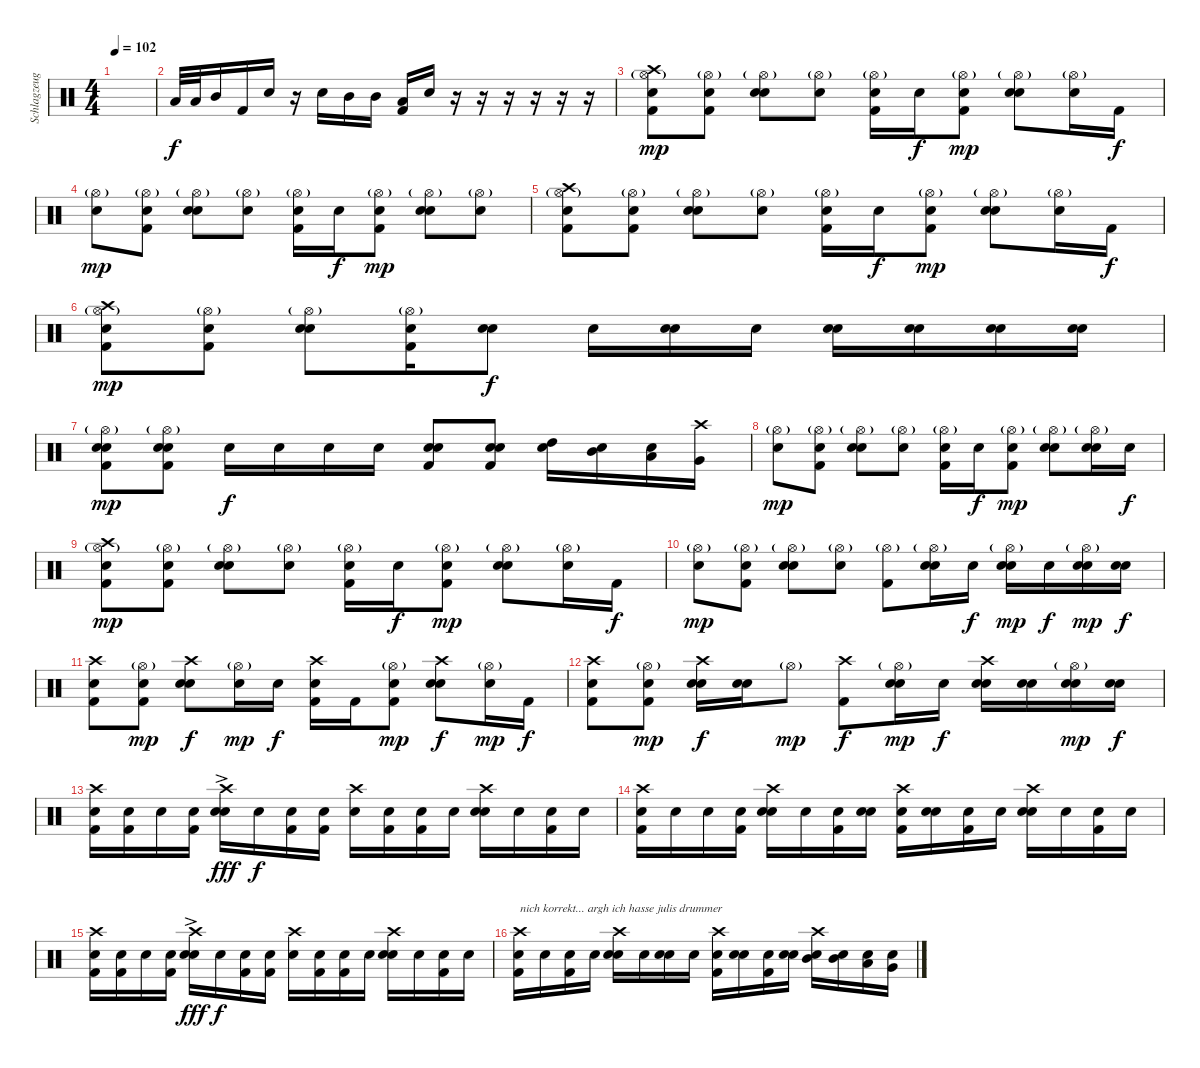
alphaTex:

\track ("Schlagzeug" "Schlagzeug") {instrument percussion}
\staff {score}
\articulation defaults
\ts (4 4)
\tempo 102
\clef neutral
\ks c
|
"Low Tom (hit)".32{dy f} "Low Tom (hit)".32 "Mid Tom (hit)".16 "Kick (hit) 2".16 "Snare (hit) 2".16 r.16 "Snare (hit) 2".16 "Mid Tom (hit)".16 "Mid Tom (hit)".16 ("Low Tom (hit)" "Kick (hit) 2").16 "Snare (hit) 2".16 r.16 r.16 r.16 r.16 r.16 r.16 |
("Kick (hit) 2" "Crash high (hit)" "Hi-Hat (open)"{g} "Snare (hit)").8{dy mp} ("Kick (hit) 2" "Hi-Hat (open)"{g} "Snare (hit)").8 ("Snare (hit) 2" "Hi-Hat (open)"{g} "Snare (hit)").8 ("Hi-Hat (open)"{g} "Snare (hit)").8 ("Kick (hit) 2" "Hi-Hat (open)"{g} "Snare (hit)").16 "Snare (hit) 2".16{dy f} ("Kick (hit) 2" "Hi-Hat (open)"{g} "Snare (hit)").8{dy mp} ("Snare (hit) 2" "Hi-Hat (open)"{g} "Snare (hit)").8 ("Hi-Hat (open)"{g} "Snare (hit)").16 "Kick (hit) 2".16{dy f} |
("Hi-Hat (open)"{g} "Snare (hit)").8{dy mp} ("Kick (hit) 2" "Hi-Hat (open)"{g} "Snare (hit)").8 ("Snare (hit) 2" "Hi-Hat (open)"{g} "Snare (hit)").8 ("Hi-Hat (open)"{g} "Snare (hit)").8 ("Kick (hit) 2" "Hi-Hat (open)"{g} "Snare (hit)").16 "Snare (hit) 2".16{dy f} ("Kick (hit) 2" "Hi-Hat (open)"{g} "Snare (hit)").8{dy mp} ("Snare (hit) 2" "Hi-Hat (open)"{g} "Snare (hit)").8 ("Hi-Hat (open)"{g} "Snare (hit)").8 |
("Kick (hit) 2" "Crash high (hit)" "Hi-Hat (open)"{g} "Snare (hit)").8 ("Kick (hit) 2" "Hi-Hat (open)"{g} "Snare (hit)").8 ("Snare (hit) 2" "Hi-Hat (open)"{g} "Snare (hit)").8 ("Hi-Hat (open)"{g} "Snare (hit)").8 ("Kick (hit) 2" "Hi-Hat (open)"{g} "Snare (hit)").16 "Snare (hit) 2".16{dy f} ("Kick (hit) 2" "Hi-Hat (open)"{g} "Snare (hit)").8{dy mp} ("Snare (hit) 2" "Hi-Hat (open)"{g} "Snare (hit)").8 ("Hi-Hat (open)"{g} "Snare (hit)").16 "Kick (hit) 2".16{dy f} |
("Kick (hit) 2" "Crash high (hit)" "Hi-Hat (open)"{g} "Snare (hit)").8{dy mp} ("Kick (hit) 2" "Hi-Hat (open)"{g} "Snare (hit)").8 ("Snare (hit) 2" "Hi-Hat (open)"{g} "Snare (hit)").8 ("Kick (hit) 2" "Hi-Hat (open)"{g} "Snare (hit)").16 ("Snare (hit) 2" "Snare (hit)").8{dy f} "Snare (hit)".16 ("Snare (hit) 2" "Snare (hit)").16 "Snare (hit)".16 ("Snare (hit) 2" "Snare (hit)").16 ("Snare (hit) 2" "Snare (hit)").16 ("Snare (hit) 2" "Snare (hit)").16 ("Snare (hit) 2" "Snare (hit)").16 |
("Kick (hit) 2" "Snare (hit) 2" "Hi-Hat (open)"{g} "Snare (hit)").8{dy mp} ("Kick (hit) 2" "Snare (hit) 2" "Hi-Hat (open)"{g} "Snare (hit)").8 "Snare (hit)".16{dy f} "Snare (hit)".16 "Snare (hit)".16 "Snare (hit)".16 ("Kick (hit) 2" "Snare (hit) 2" "Snare (hit)").8 ("Kick (hit) 2" "Snare (hit) 2" "Snare (hit)").8 ("High Tom (hit)" "Snare (hit)").16 ("Mid Tom (hit)" "Snare (hit)").16 ("Low Tom (hit)" "Snare (hit)").16 ("Very Low Tom (hit)" "Crash high (hit)").16 |
("Hi-Hat (open)"{g} "Snare (hit)").8{dy mp} ("Kick (hit) 2" "Hi-Hat (open)"{g} "Snare (hit)").8 ("Snare (hit) 2" "Hi-Hat (open)"{g} "Snare (hit)").8 ("Hi-Hat (open)"{g} "Snare (hit)").8 ("Kick (hit) 2" "Hi-Hat (open)"{g} "Snare (hit)").16 "Snare (hit) 2".16{dy f} ("Kick (hit) 2" "Hi-Hat (open)"{g} "Snare (hit)").8{dy mp} ("Snare (hit) 2" "Hi-Hat (open)"{g} "Snare (hit)").8 ("Snare (hit) 2" "Hi-Hat (open)"{g} "Snare (hit)").16 "Snare (hit) 2".16{dy f} |
("Kick (hit) 2" "Crash high (hit)" "Hi-Hat (open)"{g} "Snare (hit)").8{dy mp} ("Kick (hit) 2" "Hi-Hat (open)"{g} "Snare (hit)").8 ("Snare (hit) 2" "Hi-Hat (open)"{g} "Snare (hit)").8 ("Hi-Hat (open)"{g} "Snare (hit)").8 ("Kick (hit) 2" "Hi-Hat (open)"{g} "Snare (hit)").16 "Snare (hit) 2".16{dy f} ("Kick (hit) 2" "Hi-Hat (open)"{g} "Snare (hit)").8{dy mp} ("Snare (hit) 2" "Hi-Hat (open)"{g} "Snare (hit)").8 ("Hi-Hat (open)"{g} "Snare (hit)").16 "Kick (hit) 2".16{dy f} |
("Hi-Hat (open)"{g} "Snare (hit)").8{dy mp} ("Kick (hit) 2" "Hi-Hat (open)"{g} "Snare (hit)").8 ("Snare (hit) 2" "Hi-Hat (open)"{g} "Snare (hit)").8 ("Hi-Hat (open)"{g} "Snare (hit)").8 ("Kick (hit) 2" "Hi-Hat (open)"{g}).8 ("Snare (hit) 2" "Hi-Hat (open)"{g} "Snare (hit)").16 "Snare (hit)".16{dy f} ("Snare (hit) 2" "Hi-Hat (open)"{g} "Snare (hit)").16{dy mp} "Snare (hit)".16{dy f} ("Snare (hit) 2" "Hi-Hat (open)"{g} "Snare (hit)").16{dy mp} ("Snare (hit) 2" "Snare (hit)").16{dy f} |
("Kick (hit) 2" "Crash high (hit)" "Snare (hit)").8 ("Kick (hit) 2" "Hi-Hat (open)"{g} "Snare (hit)").8{dy mp} ("Snare (hit) 2" "Crash high (hit)" "Snare (hit)").8{dy f} ("Hi-Hat (open)"{g} "Snare (hit)").16{dy mp} "Snare (hit) 2".16{dy f} ("Kick (hit) 2" "Crash high (hit)" "Snare (hit)").16 "Kick (hit) 2".16 ("Kick (hit) 2" "Hi-Hat (open)"{g} "Snare (hit)").8{dy mp} ("Snare (hit) 2" "Crash high (hit)" "Snare (hit)").8{dy f} ("Hi-Hat (open)"{g} "Snare (hit)").16{dy mp} "Kick (hit) 2".16{dy f} |
("Kick (hit) 2" "Crash high (hit)" "Snare (hit)").8 ("Kick (hit) 2" "Hi-Hat (open)"{g} "Snare (hit)").8{dy mp} ("Snare (hit) 2" "Crash high (hit)" "Snare (hit)").16{dy f} ("Snare (hit) 2" "Snare (hit)").16 "Hi-Hat (open)"{g}.8{dy mp} ("Kick (hit) 2" "Crash high (hit)").8{dy f} ("Snare (hit) 2" "Hi-Hat (open)"{g} "Snare (hit)").16{dy mp} "Snare (hit)".16{dy f} ("Snare (hit) 2" "Crash high (hit)" "Snare (hit)").16 ("Snare (hit) 2" "Snare (hit)").16 ("Snare (hit) 2" "Hi-Hat (open)"{g} "Snare (hit)").16{dy mp} ("Snare (hit) 2" "Snare (hit)").16{dy f} |
("Kick (hit) 2" "Crash high (hit)" "Snare (hit)").16 ("Kick (hit) 2" "Snare (hit)").16 "Snare (hit)".16 ("Kick (hit) 2" "Snare (hit)").16 ("Snare (hit) 2"{ac} "Crash high (hit)" "Snare (hit)").16{dy fff} "Snare (hit)".16{dy f} ("Kick (hit) 2" "Snare (hit)").16 ("Kick (hit) 2" "Snare (hit)").16 ("Crash high (hit)" "Snare (hit)").16 ("Kick (hit) 2" "Snare (hit)").16 ("Kick (hit) 2" "Snare (hit)").16 "Snare (hit)".16 ("Snare (hit) 2" "Crash high (hit)" "Snare (hit)").16 "Snare (hit)".16 ("Kick (hit) 2" "Snare (hit)").16 "Snare (hit)".16 |
("Kick (hit) 2" "Crash high (hit)" "Snare (hit)").16 "Snare (hit)".16 "Snare (hit)".16 ("Kick (hit) 2" "Snare (hit)").16 ("Snare (hit) 2" "Crash high (hit)" "Snare (hit)").16 "Snare (hit)".16 ("Kick (hit) 2" "Snare (hit)").16 ("Snare (hit) 2" "Snare (hit)").16 ("Kick (hit) 2" "Crash high (hit)" "Snare (hit)").16 ("Snare (hit) 2" "Snare (hit)").16 ("Kick (hit) 2" "Snare (hit)").16 "Snare (hit)".16 ("Snare (hit) 2" "Crash high (hit)" "Snare (hit)").16 "Snare (hit)".16 ("Kick (hit) 2" "Snare (hit)").16 "Snare (hit)".16 |
("Kick (hit) 2" "Crash high (hit)" "Snare (hit)").16 ("Kick (hit) 2" "Snare (hit)").16 "Snare (hit)".16 ("Kick (hit) 2" "Snare (hit)").16 ("Snare (hit) 2"{ac} "Crash high (hit)" "Snare (hit)").16{dy fff} "Snare (hit)".16{dy f} ("Kick (hit) 2" "Snare (hit)").16 ("Kick (hit) 2" "Snare (hit)").16 ("Crash high (hit)" "Snare (hit)").16 ("Kick (hit) 2" "Snare (hit)").16 ("Kick (hit) 2" "Snare (hit)").16 "Snare (hit)".16 ("Snare (hit) 2" "Crash high (hit)" "Snare (hit)").16 "Snare (hit)".16 ("Kick (hit) 2" "Snare (hit)").16 "Snare (hit)".16 |
("Kick (hit) 2" "Crash high (hit)" "Snare (hit)").16{txt "nich korrekt... argh ich hasse julis drummer"} "Snare (hit)".16 ("Kick (hit) 2" "Snare (hit)").16 "Snare (hit)".16 ("Snare (hit) 2" "Crash high (hit)" "Snare (hit)").16 "Snare (hit)".16 ("Snare (hit) 2" "Snare (hit)").16 "Snare (hit)".16 ("Kick (hit) 2" "Crash high (hit)" "Snare (hit)").16 ("Snare (hit) 2" "Snare (hit)").16 ("Kick (hit) 2" "Snare (hit)").16 ("Snare (hit) 2" "Snare (hit)").16 ("Mid Tom (hit)" "Crash high (hit)" "Snare (hit)").16 ("Mid Tom (hit)" "Snare (hit)").16 ("Low Tom (hit)" "Snare (hit)").16 ("Very Low Tom (hit)" "Snare (hit)").16
